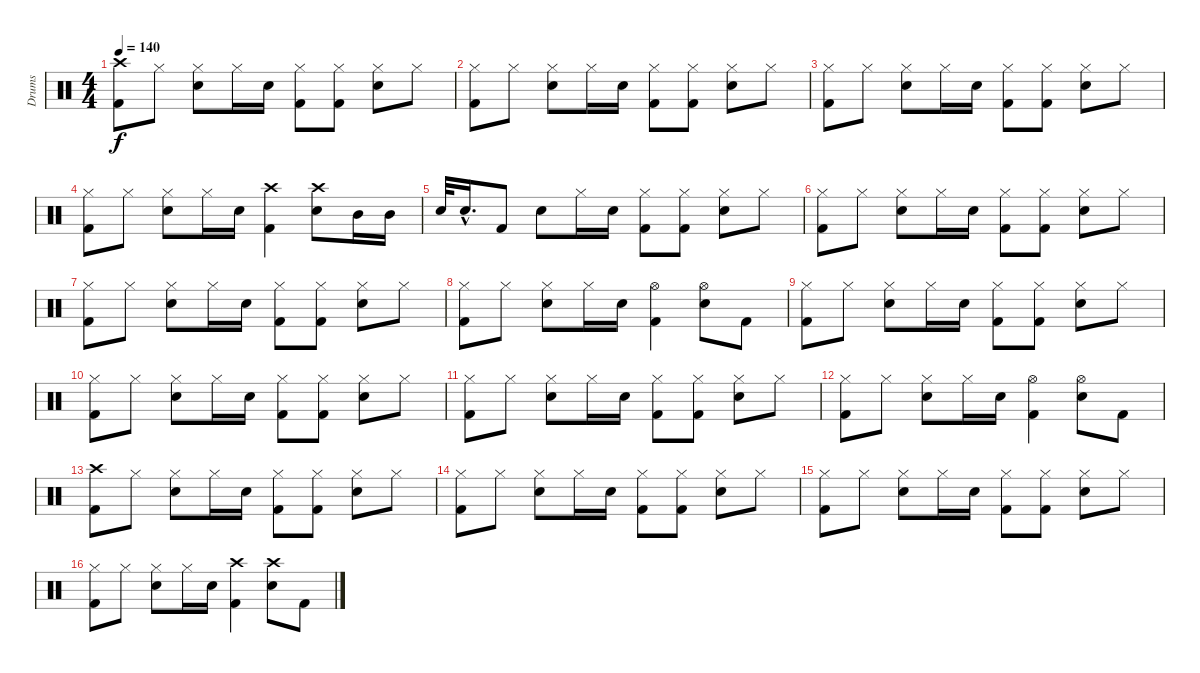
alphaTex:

\track ("Drums" "Drums") {instrument percussion}
\staff {score}
\articulation defaults
\ts (4 4)
\tempo 140
\clef neutral
\ks c
("Crash high (hit)" "Kick (hit) 2").8{dy f} "Hi-Hat (closed)".8 ("Hi-Hat (closed)" "Snare (hit) 2").8 "Hi-Hat (closed)".16 "Snare (hit) 2".16 ("Hi-Hat (closed)" "Kick (hit) 2").8 ("Hi-Hat (closed)" "Kick (hit) 2").8 ("Hi-Hat (closed)" "Snare (hit) 2").8 "Hi-Hat (closed)".8 |
("Hi-Hat (closed)" "Kick (hit) 2").8 "Hi-Hat (closed)".8 ("Hi-Hat (closed)" "Snare (hit) 2").8 "Hi-Hat (closed)".16 "Snare (hit) 2".16 ("Hi-Hat (closed)" "Kick (hit) 2").8 ("Hi-Hat (closed)" "Kick (hit) 2").8 ("Hi-Hat (closed)" "Snare (hit) 2").8 "Hi-Hat (closed)".8 |
("Hi-Hat (closed)" "Kick (hit) 2").8 "Hi-Hat (closed)".8 ("Hi-Hat (closed)" "Snare (hit) 2").8 "Hi-Hat (closed)".16 "Snare (hit) 2".16 ("Hi-Hat (closed)" "Kick (hit) 2").8 ("Hi-Hat (closed)" "Kick (hit) 2").8 ("Hi-Hat (closed)" "Snare (hit) 2").8 "Hi-Hat (closed)".8 |
("Hi-Hat (closed)" "Kick (hit) 2").8 "Hi-Hat (closed)".8 ("Hi-Hat (closed)" "Snare (hit) 2").8 "Hi-Hat (closed)".16 "Snare (hit) 2".16 ("Crash high (hit)" "Kick (hit) 2").4 ("Crash high (hit)" "Snare (hit) 2").8 "Mid Tom (hit)".16 "Mid Tom (hit)".16 |
"Snare (hit) 2".32 "Snare (hit) 2"{hac}.16{d} "Kick (hit) 2".8 "Snare (hit) 2".8 "Hi-Hat (closed)".16 "Snare (hit) 2".16 ("Hi-Hat (closed)" "Kick (hit) 2").8 ("Hi-Hat (closed)" "Kick (hit) 2").8 ("Hi-Hat (closed)" "Snare (hit) 2").8 "Hi-Hat (closed)".8 |
("Hi-Hat (closed)" "Kick (hit) 2").8 "Hi-Hat (closed)".8 ("Hi-Hat (closed)" "Snare (hit) 2").8 "Hi-Hat (closed)".16 "Snare (hit) 2".16 ("Hi-Hat (closed)" "Kick (hit) 2").8 ("Hi-Hat (closed)" "Kick (hit) 2").8 ("Hi-Hat (closed)" "Snare (hit) 2").8 "Hi-Hat (closed)".8 |
("Hi-Hat (closed)" "Kick (hit) 2").8 "Hi-Hat (closed)".8 ("Hi-Hat (closed)" "Snare (hit) 2").8 "Hi-Hat (closed)".16 "Snare (hit) 2".16 ("Hi-Hat (closed)" "Kick (hit) 2").8 ("Hi-Hat (closed)" "Kick (hit) 2").8 ("Hi-Hat (closed)" "Snare (hit) 2").8 "Hi-Hat (closed)".8 |
("Hi-Hat (closed)" "Kick (hit) 2").8 "Hi-Hat (closed)".8 ("Hi-Hat (closed)" "Snare (hit) 2").8 "Hi-Hat (closed)".16 "Snare (hit) 2".16 ("Hi-Hat (open)" "Kick (hit) 2").4 ("Hi-Hat (open)" "Snare (hit) 2").8 "Kick (hit) 2".8 |
("Hi-Hat (closed)" "Kick (hit) 2").8 "Hi-Hat (closed)".8 ("Hi-Hat (closed)" "Snare (hit) 2").8 "Hi-Hat (closed)".16 "Snare (hit) 2".16 ("Hi-Hat (closed)" "Kick (hit) 2").8 ("Hi-Hat (closed)" "Kick (hit) 2").8 ("Hi-Hat (closed)" "Snare (hit) 2").8 "Hi-Hat (closed)".8 |
("Hi-Hat (closed)" "Kick (hit) 2").8 "Hi-Hat (closed)".8 ("Hi-Hat (closed)" "Snare (hit) 2").8 "Hi-Hat (closed)".16 "Snare (hit) 2".16 ("Hi-Hat (closed)" "Kick (hit) 2").8 ("Hi-Hat (closed)" "Kick (hit) 2").8 ("Hi-Hat (closed)" "Snare (hit) 2").8 "Hi-Hat (closed)".8 |
("Hi-Hat (closed)" "Kick (hit) 2").8 "Hi-Hat (closed)".8 ("Hi-Hat (closed)" "Snare (hit) 2").8 "Hi-Hat (closed)".16 "Snare (hit) 2".16 ("Hi-Hat (closed)" "Kick (hit) 2").8 ("Hi-Hat (closed)" "Kick (hit) 2").8 ("Hi-Hat (closed)" "Snare (hit) 2").8 "Hi-Hat (closed)".8 |
("Hi-Hat (closed)" "Kick (hit) 2").8 "Hi-Hat (closed)".8 ("Hi-Hat (closed)" "Snare (hit) 2").8 "Hi-Hat (closed)".16 "Snare (hit) 2".16 ("Hi-Hat (open)" "Kick (hit) 2").4 ("Hi-Hat (open)" "Snare (hit) 2").8 "Kick (hit) 2".8 |
("Crash high (hit)" "Kick (hit) 2").8 "Hi-Hat (closed)".8 ("Hi-Hat (closed)" "Snare (hit) 2").8 "Hi-Hat (closed)".16 "Snare (hit) 2".16 ("Hi-Hat (closed)" "Kick (hit) 2").8 ("Hi-Hat (closed)" "Kick (hit) 2").8 ("Hi-Hat (closed)" "Snare (hit) 2").8 "Hi-Hat (closed)".8 |
("Hi-Hat (closed)" "Kick (hit) 2").8 "Hi-Hat (closed)".8 ("Hi-Hat (closed)" "Snare (hit) 2").8 "Hi-Hat (closed)".16 "Snare (hit) 2".16 ("Hi-Hat (closed)" "Kick (hit) 2").8 ("Hi-Hat (closed)" "Kick (hit) 2").8 ("Hi-Hat (closed)" "Snare (hit) 2").8 "Hi-Hat (closed)".8 |
("Hi-Hat (closed)" "Kick (hit) 2").8 "Hi-Hat (closed)".8 ("Hi-Hat (closed)" "Snare (hit) 2").8 "Hi-Hat (closed)".16 "Snare (hit) 2".16 ("Hi-Hat (closed)" "Kick (hit) 2").8 ("Hi-Hat (closed)" "Kick (hit) 2").8 ("Hi-Hat (closed)" "Snare (hit) 2").8 "Hi-Hat (closed)".8 |
("Hi-Hat (closed)" "Kick (hit) 2").8 "Hi-Hat (closed)".8 ("Hi-Hat (closed)" "Snare (hit) 2").8 "Hi-Hat (closed)".16 "Snare (hit) 2".16 ("Crash high (hit)" "Kick (hit) 2").4 ("Crash high (hit)" "Snare (hit) 2").8 "Kick (hit) 2".8
